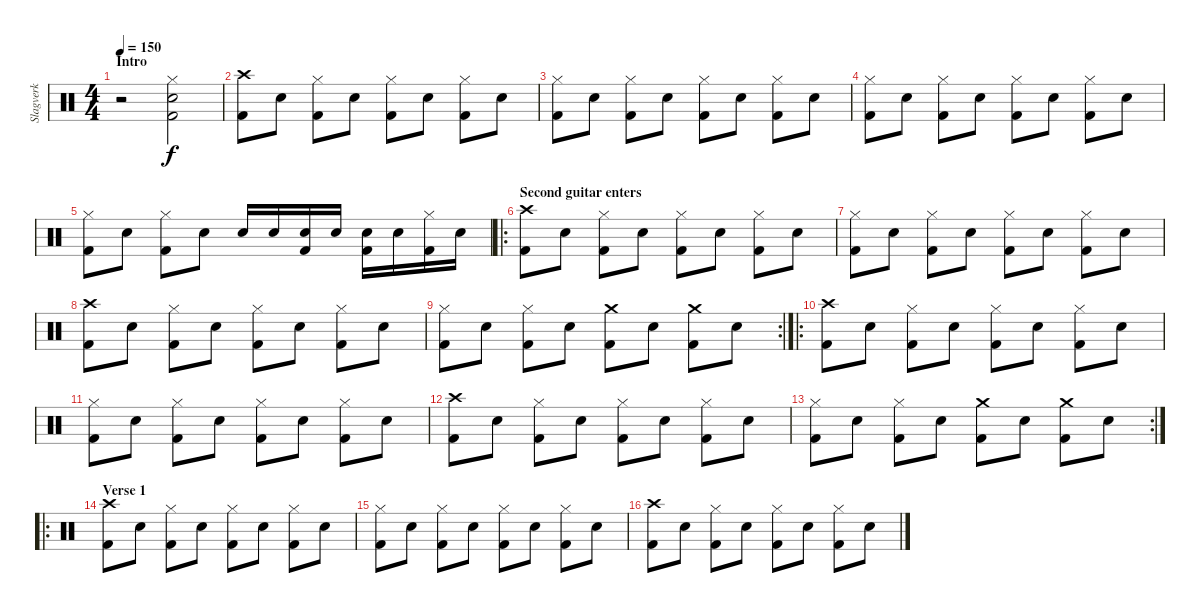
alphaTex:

\track ("Slagverk" "Slagverk") {instrument percussion}
\staff {score}
\articulation defaults
\ts (4 4)
\section ("" "Intro")
\tempo 150
\clef neutral
\ks c
r.2{dy f} ("Hi-Hat (closed)" "Electric Snare (hit)" "Kick (hit) 2").2 |
("Crash high (hit)" "Kick (hit) 2").8 "Electric Snare (hit)".8 ("Hi-Hat (closed)" "Kick (hit) 2").8 "Electric Snare (hit)".8 ("Hi-Hat (closed)" "Kick (hit) 2").8 "Electric Snare (hit)".8 ("Hi-Hat (closed)" "Kick (hit) 2").8 "Electric Snare (hit)".8 |
("Hi-Hat (closed)" "Kick (hit) 2").8 "Electric Snare (hit)".8 ("Hi-Hat (closed)" "Kick (hit) 2").8 "Electric Snare (hit)".8 ("Hi-Hat (closed)" "Kick (hit) 2").8 "Electric Snare (hit)".8 ("Hi-Hat (closed)" "Kick (hit) 2").8 "Electric Snare (hit)".8 |
("Hi-Hat (closed)" "Kick (hit) 2").8 "Electric Snare (hit)".8 ("Hi-Hat (closed)" "Kick (hit) 2").8 "Electric Snare (hit)".8 ("Hi-Hat (closed)" "Kick (hit) 2").8 "Electric Snare (hit)".8 ("Hi-Hat (closed)" "Kick (hit) 2").8 "Electric Snare (hit)".8 |
("Hi-Hat (closed)" "Kick (hit) 2").8 "Electric Snare (hit)".8 ("Hi-Hat (closed)" "Kick (hit) 2").8 "Electric Snare (hit)".8 "Electric Snare (hit)".16 "Electric Snare (hit)".16 ("Electric Snare (hit)" "Kick (hit) 2").16 "Electric Snare (hit)".16 ("Electric Snare (hit)" "Kick (hit) 2").16 "Electric Snare (hit)".16 ("Hi-Hat (closed)" "Kick (hit) 2").16 "Electric Snare (hit)".16 |
\ro
\section ("" "Second guitar enters")
("Crash high (hit)" "Kick (hit) 2").8 "Electric Snare (hit)".8 ("Hi-Hat (closed)" "Kick (hit) 2").8 "Electric Snare (hit)".8 ("Hi-Hat (closed)" "Kick (hit) 2").8 "Electric Snare (hit)".8 ("Hi-Hat (closed)" "Kick (hit) 2").8 "Electric Snare (hit)".8 |
("Hi-Hat (closed)" "Kick (hit) 2").8 "Electric Snare (hit)".8 ("Hi-Hat (closed)" "Kick (hit) 2").8 "Electric Snare (hit)".8 ("Hi-Hat (closed)" "Kick (hit) 2").8 "Electric Snare (hit)".8 ("Hi-Hat (closed)" "Kick (hit) 2").8 "Electric Snare (hit)".8 |
("Crash high (hit)" "Kick (hit) 2").8 "Electric Snare (hit)".8 ("Hi-Hat (closed)" "Kick (hit) 2").8 "Electric Snare (hit)".8 ("Hi-Hat (closed)" "Kick (hit) 2").8 "Electric Snare (hit)".8 ("Hi-Hat (closed)" "Kick (hit) 2").8 "Electric Snare (hit)".8 |
\rc 2
("Hi-Hat (closed)" "Kick (hit) 2").8 "Electric Snare (hit)".8 ("Hi-Hat (closed)" "Kick (hit) 2").8 "Electric Snare (hit)".8 ("Crash medium (hit)" "Kick (hit) 2").8 "Electric Snare (hit)".8 ("Crash medium (hit)" "Kick (hit) 2").8 "Electric Snare (hit)".8 |
\ro
("Crash high (hit)" "Kick (hit) 2").8 "Electric Snare (hit)".8 ("Hi-Hat (closed)" "Kick (hit) 2").8 "Electric Snare (hit)".8 ("Hi-Hat (closed)" "Kick (hit) 2").8 "Electric Snare (hit)".8 ("Hi-Hat (closed)" "Kick (hit) 2").8 "Electric Snare (hit)".8 |
("Hi-Hat (closed)" "Kick (hit) 2").8 "Electric Snare (hit)".8 ("Hi-Hat (closed)" "Kick (hit) 2").8 "Electric Snare (hit)".8 ("Hi-Hat (closed)" "Kick (hit) 2").8 "Electric Snare (hit)".8 ("Hi-Hat (closed)" "Kick (hit) 2").8 "Electric Snare (hit)".8 |
("Crash high (hit)" "Kick (hit) 2").8 "Electric Snare (hit)".8 ("Hi-Hat (closed)" "Kick (hit) 2").8 "Electric Snare (hit)".8 ("Hi-Hat (closed)" "Kick (hit) 2").8 "Electric Snare (hit)".8 ("Hi-Hat (closed)" "Kick (hit) 2").8 "Electric Snare (hit)".8 |
\rc 2
("Hi-Hat (closed)" "Kick (hit) 2").8 "Electric Snare (hit)".8 ("Hi-Hat (closed)" "Kick (hit) 2").8 "Electric Snare (hit)".8 ("Crash medium (hit)" "Kick (hit) 2").8 "Electric Snare (hit)".8 ("Crash medium (hit)" "Kick (hit) 2").8 "Electric Snare (hit)".8 |
\ro
\section ("" "Verse 1")
("Crash high (hit)" "Kick (hit) 2").8 "Electric Snare (hit)".8 ("Hi-Hat (closed)" "Kick (hit) 2").8 "Electric Snare (hit)".8 ("Hi-Hat (closed)" "Kick (hit) 2").8 "Electric Snare (hit)".8 ("Hi-Hat (closed)" "Kick (hit) 2").8 "Electric Snare (hit)".8 |
("Hi-Hat (closed)" "Kick (hit) 2").8 "Electric Snare (hit)".8 ("Hi-Hat (closed)" "Kick (hit) 2").8 "Electric Snare (hit)".8 ("Hi-Hat (closed)" "Kick (hit) 2").8 "Electric Snare (hit)".8 ("Hi-Hat (closed)" "Kick (hit) 2").8 "Electric Snare (hit)".8 |
("Crash high (hit)" "Kick (hit) 2").8 "Electric Snare (hit)".8 ("Hi-Hat (closed)" "Kick (hit) 2").8 "Electric Snare (hit)".8 ("Hi-Hat (closed)" "Kick (hit) 2").8 "Electric Snare (hit)".8 ("Hi-Hat (closed)" "Kick (hit) 2").8 "Electric Snare (hit)".8
